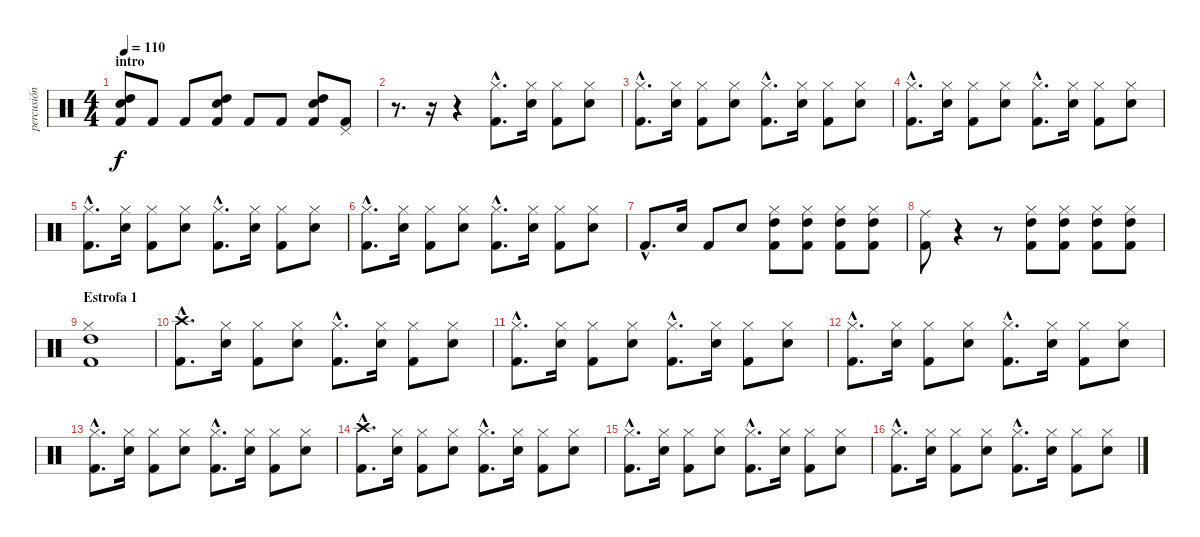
\track ("percusión" "percusión") {instrument percussion}
\staff {score}
\articulation defaults
\ts (4 4)
\section ("" "intro")
\tempo 110
\clef neutral
\ks c
("Kick (hit) 2" "Snare (hit) 2" "High Tom (hit)").8{dy f} "Kick (hit) 2".8 "Kick (hit) 2".8 ("Kick (hit) 2" "Snare (hit) 2" "High Tom (hit)").8 "Kick (hit) 2".8 "Kick (hit) 2".8 ("Kick (hit) 2" "Snare (hit) 2" "High Tom (hit)").8 ("Kick (hit) 2" "Pedal Hi-Hat (hit)").8 |
r.8{d} r.16 r.4 ("Kick (hit) 2"{hac} "Hi-Hat (closed)"{hac}).8{d} ("Snare (hit) 2" "Hi-Hat (closed)").16 ("Kick (hit) 2" "Hi-Hat (closed)").8 ("Snare (hit) 2" "Hi-Hat (closed)").8 |
("Kick (hit) 2"{hac} "Hi-Hat (closed)"{hac}).8{d} ("Snare (hit) 2" "Hi-Hat (closed)").16 ("Kick (hit) 2" "Hi-Hat (closed)").8 ("Snare (hit) 2" "Hi-Hat (closed)").8 ("Kick (hit) 2"{hac} "Hi-Hat (closed)"{hac}).8{d} ("Snare (hit) 2" "Hi-Hat (closed)").16 ("Kick (hit) 2" "Hi-Hat (closed)").8 ("Snare (hit) 2" "Hi-Hat (closed)").8 |
("Kick (hit) 2"{hac} "Hi-Hat (closed)"{hac}).8{d} ("Snare (hit) 2" "Hi-Hat (closed)").16 ("Kick (hit) 2" "Hi-Hat (closed)").8 ("Snare (hit) 2" "Hi-Hat (closed)").8 ("Kick (hit) 2"{hac} "Hi-Hat (closed)"{hac}).8{d} ("Snare (hit) 2" "Hi-Hat (closed)").16 ("Kick (hit) 2" "Hi-Hat (closed)").8 ("Snare (hit) 2" "Hi-Hat (closed)").8 |
("Kick (hit) 2"{hac} "Hi-Hat (closed)"{hac}).8{d} ("Snare (hit) 2" "Hi-Hat (closed)").16 ("Kick (hit) 2" "Hi-Hat (closed)").8 ("Snare (hit) 2" "Hi-Hat (closed)").8 ("Kick (hit) 2"{hac} "Hi-Hat (closed)"{hac}).8{d} ("Snare (hit) 2" "Hi-Hat (closed)").16 ("Kick (hit) 2" "Hi-Hat (closed)").8 ("Snare (hit) 2" "Hi-Hat (closed)").8 |
("Kick (hit) 2"{hac} "Hi-Hat (closed)"{hac}).8{d} ("Snare (hit) 2" "Hi-Hat (closed)").16 ("Kick (hit) 2" "Hi-Hat (closed)").8 ("Snare (hit) 2" "Hi-Hat (closed)").8 ("Kick (hit) 2"{hac} "Hi-Hat (closed)"{hac}).8{d} ("Snare (hit) 2" "Hi-Hat (closed)").16 ("Kick (hit) 2" "Hi-Hat (closed)").8 ("Snare (hit) 2" "Hi-Hat (closed)").8 |
"Kick (hit) 2"{hac}.8{d} "Snare (hit) 2".16 "Kick (hit) 2".8 "Snare (hit) 2".8 ("Hi-Hat (closed)" "Kick (hit) 2" "High Tom (hit)").8 ("Hi-Hat (closed)" "Kick (hit) 2" "High Tom (hit)").8 ("Hi-Hat (closed)" "Kick (hit) 2" "High Tom (hit)").8 ("Hi-Hat (closed)" "Kick (hit) 2" "High Tom (hit)").8 |
("Ride (middle)" "Kick (hit) 2").8 r.4 r.8 ("Hi-Hat (closed)" "Kick (hit) 2" "High Tom (hit)").8 ("Hi-Hat (closed)" "Kick (hit) 2" "High Tom (hit)").8 ("Hi-Hat (closed)" "Kick (hit) 2" "High Tom (hit)").8 ("Hi-Hat (closed)" "Kick (hit) 2" "High Tom (hit)").8 |
\section ("" "Estrofa 1")
("Hi-Hat (closed)" "Kick (hit) 2" "High Tom (hit)").1 |
("Kick (hit) 2"{hac} "Crash high (hit)"{hac}).8{d} ("Snare (hit) 2" "Hi-Hat (closed)").16 ("Kick (hit) 2" "Hi-Hat (closed)").8 ("Snare (hit) 2" "Hi-Hat (closed)").8 ("Kick (hit) 2"{hac} "Hi-Hat (closed)"{hac}).8{d} ("Snare (hit) 2" "Hi-Hat (closed)").16 ("Kick (hit) 2" "Hi-Hat (closed)").8 ("Snare (hit) 2" "Hi-Hat (closed)").8 |
("Kick (hit) 2"{hac} "Hi-Hat (closed)"{hac}).8{d} ("Snare (hit) 2" "Hi-Hat (closed)").16 ("Kick (hit) 2" "Hi-Hat (closed)").8 ("Snare (hit) 2" "Hi-Hat (closed)").8 ("Kick (hit) 2"{hac} "Hi-Hat (closed)"{hac}).8{d} ("Snare (hit) 2" "Hi-Hat (closed)").16 ("Kick (hit) 2" "Hi-Hat (closed)").8 ("Snare (hit) 2" "Hi-Hat (closed)").8 |
("Kick (hit) 2"{hac} "Hi-Hat (closed)"{hac}).8{d} ("Snare (hit) 2" "Hi-Hat (closed)").16 ("Kick (hit) 2" "Hi-Hat (closed)").8 ("Snare (hit) 2" "Hi-Hat (closed)").8 ("Kick (hit) 2"{hac} "Hi-Hat (closed)"{hac}).8{d} ("Snare (hit) 2" "Hi-Hat (closed)").16 ("Kick (hit) 2" "Hi-Hat (closed)").8 ("Snare (hit) 2" "Hi-Hat (closed)").8 |
("Kick (hit) 2"{hac} "Hi-Hat (closed)"{hac}).8{d} ("Snare (hit) 2" "Hi-Hat (closed)").16 ("Kick (hit) 2" "Hi-Hat (closed)").8 ("Snare (hit) 2" "Hi-Hat (closed)").8 ("Kick (hit) 2"{hac} "Hi-Hat (closed)"{hac}).8{d} ("Snare (hit) 2" "Hi-Hat (closed)").16 ("Kick (hit) 2" "Hi-Hat (closed)").8 ("Snare (hit) 2" "Hi-Hat (closed)").8 |
("Kick (hit) 2"{hac} "Crash high (hit)"{hac}).8{d} ("Snare (hit) 2" "Hi-Hat (closed)").16 ("Kick (hit) 2" "Hi-Hat (closed)").8 ("Snare (hit) 2" "Hi-Hat (closed)").8 ("Kick (hit) 2"{hac} "Hi-Hat (closed)"{hac}).8{d} ("Snare (hit) 2" "Hi-Hat (closed)").16 ("Kick (hit) 2" "Hi-Hat (closed)").8 ("Snare (hit) 2" "Hi-Hat (closed)").8 |
("Kick (hit) 2"{hac} "Hi-Hat (closed)"{hac}).8{d} ("Snare (hit) 2" "Hi-Hat (closed)").16 ("Kick (hit) 2" "Hi-Hat (closed)").8 ("Snare (hit) 2" "Hi-Hat (closed)").8 ("Kick (hit) 2"{hac} "Hi-Hat (closed)"{hac}).8{d} ("Snare (hit) 2" "Hi-Hat (closed)").16 ("Kick (hit) 2" "Hi-Hat (closed)").8 ("Snare (hit) 2" "Hi-Hat (closed)").8 |
("Kick (hit) 2"{hac} "Hi-Hat (closed)"{hac}).8{d} ("Snare (hit) 2" "Hi-Hat (closed)").16 ("Kick (hit) 2" "Hi-Hat (closed)").8 ("Snare (hit) 2" "Hi-Hat (closed)").8 ("Kick (hit) 2"{hac} "Hi-Hat (closed)"{hac}).8{d} ("Snare (hit) 2" "Hi-Hat (closed)").16 ("Kick (hit) 2" "Hi-Hat (closed)").8 ("Snare (hit) 2" "Hi-Hat (closed)").8
